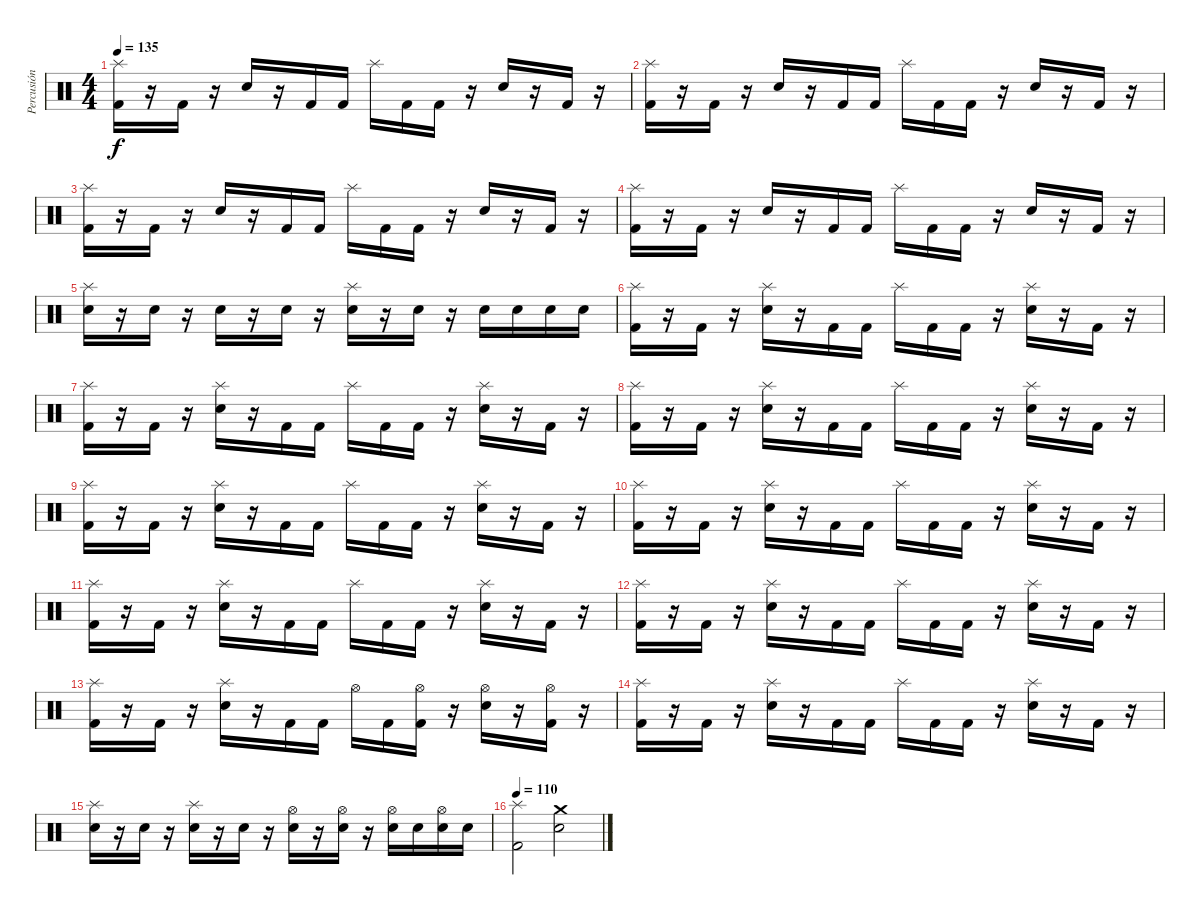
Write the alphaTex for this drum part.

\track ("Percusión" "Percusión") {instrument percussion}
\staff {score}
\articulation defaults
\ts (4 4)
\tempo 135
\clef neutral
\ks c
("Splash (hit)" "Kick (hit) 2").16{dy f} r.16 "Kick (hit) 2".16 r.16 "Electric Snare (hit)".16 r.16 "Kick (hit) 2".16 "Kick (hit) 2".16 "Splash (hit)".16 "Kick (hit) 2".16 "Kick (hit) 2".16 r.16 "Electric Snare (hit)".16 r.16 "Kick (hit) 2".16 r.16 |
("Splash (hit)" "Kick (hit) 2").16 r.16 "Kick (hit) 2".16 r.16 "Electric Snare (hit)".16 r.16 "Kick (hit) 2".16 "Kick (hit) 2".16 "Splash (hit)".16 "Kick (hit) 2".16 "Kick (hit) 2".16 r.16 "Electric Snare (hit)".16 r.16 "Kick (hit) 2".16 r.16 |
("Splash (hit)" "Kick (hit) 2").16 r.16 "Kick (hit) 2".16 r.16 "Electric Snare (hit)".16 r.16 "Kick (hit) 2".16 "Kick (hit) 2".16 "Splash (hit)".16 "Kick (hit) 2".16 "Kick (hit) 2".16 r.16 "Electric Snare (hit)".16 r.16 "Kick (hit) 2".16 r.16 |
("Splash (hit)" "Kick (hit) 2").16 r.16 "Kick (hit) 2".16 r.16 "Electric Snare (hit)".16 r.16 "Kick (hit) 2".16 "Kick (hit) 2".16 "Splash (hit)".16 "Kick (hit) 2".16 "Kick (hit) 2".16 r.16 "Electric Snare (hit)".16 r.16 "Kick (hit) 2".16 r.16 |
("Splash (hit)" "Electric Snare (hit)").16 r.16 "Electric Snare (hit)".16 r.16 "Electric Snare (hit)".16 r.16 "Electric Snare (hit)".16 r.16 ("Splash (hit)" "Electric Snare (hit)").16 r.16 "Electric Snare (hit)".16 r.16 "Electric Snare (hit)".16 "Electric Snare (hit)".16 "Electric Snare (hit)".16 "Electric Snare (hit)".16 |
("Splash (hit)" "Kick (hit) 2").16 r.16 "Kick (hit) 2".16 r.16 ("Splash (hit)" "Electric Snare (hit)").16 r.16 "Kick (hit) 2".16 "Kick (hit) 2".16 "Splash (hit)".16 "Kick (hit) 2".16 "Kick (hit) 2".16 r.16 ("Splash (hit)" "Electric Snare (hit)").16 r.16 "Kick (hit) 2".16 r.16 |
("Splash (hit)" "Kick (hit) 2").16 r.16 "Kick (hit) 2".16 r.16 ("Splash (hit)" "Electric Snare (hit)").16 r.16 "Kick (hit) 2".16 "Kick (hit) 2".16 "Splash (hit)".16 "Kick (hit) 2".16 "Kick (hit) 2".16 r.16 ("Splash (hit)" "Electric Snare (hit)").16 r.16 "Kick (hit) 2".16 r.16 |
("Splash (hit)" "Kick (hit) 2").16 r.16 "Kick (hit) 2".16 r.16 ("Splash (hit)" "Electric Snare (hit)").16 r.16 "Kick (hit) 2".16 "Kick (hit) 2".16 "Splash (hit)".16 "Kick (hit) 2".16 "Kick (hit) 2".16 r.16 ("Splash (hit)" "Electric Snare (hit)").16 r.16 "Kick (hit) 2".16 r.16 |
("Splash (hit)" "Kick (hit) 2").16 r.16 "Kick (hit) 2".16 r.16 ("Splash (hit)" "Electric Snare (hit)").16 r.16 "Kick (hit) 2".16 "Kick (hit) 2".16 "Splash (hit)".16 "Kick (hit) 2".16 "Kick (hit) 2".16 r.16 ("Splash (hit)" "Electric Snare (hit)").16 r.16 "Kick (hit) 2".16 r.16 |
("Splash (hit)" "Kick (hit) 2").16 r.16 "Kick (hit) 2".16 r.16 ("Splash (hit)" "Electric Snare (hit)").16 r.16 "Kick (hit) 2".16 "Kick (hit) 2".16 "Splash (hit)".16 "Kick (hit) 2".16 "Kick (hit) 2".16 r.16 ("Splash (hit)" "Electric Snare (hit)").16 r.16 "Kick (hit) 2".16 r.16 |
("Splash (hit)" "Kick (hit) 2").16 r.16 "Kick (hit) 2".16 r.16 ("Splash (hit)" "Electric Snare (hit)").16 r.16 "Kick (hit) 2".16 "Kick (hit) 2".16 "Splash (hit)".16 "Kick (hit) 2".16 "Kick (hit) 2".16 r.16 ("Splash (hit)" "Electric Snare (hit)").16 r.16 "Kick (hit) 2".16 r.16 |
("Splash (hit)" "Kick (hit) 2").16 r.16 "Kick (hit) 2".16 r.16 ("Splash (hit)" "Electric Snare (hit)").16 r.16 "Kick (hit) 2".16 "Kick (hit) 2".16 "Splash (hit)".16 "Kick (hit) 2".16 "Kick (hit) 2".16 r.16 ("Splash (hit)" "Electric Snare (hit)").16 r.16 "Kick (hit) 2".16 r.16 |
("Splash (hit)" "Kick (hit) 2").16 r.16 "Kick (hit) 2".16 r.16 ("Splash (hit)" "Electric Snare (hit)").16 r.16 "Kick (hit) 2".16 "Kick (hit) 2".16 "Hi-Hat (open)".16 "Kick (hit) 2".16 ("Hi-Hat (open)" "Kick (hit) 2").16 r.16 ("Hi-Hat (open)" "Electric Snare (hit)").16 r.16 ("Hi-Hat (open)" "Kick (hit) 2").16 r.16 |
("Splash (hit)" "Kick (hit) 2").16 r.16 "Kick (hit) 2".16 r.16 ("Splash (hit)" "Electric Snare (hit)").16 r.16 "Kick (hit) 2".16 "Kick (hit) 2".16 "Splash (hit)".16 "Kick (hit) 2".16 "Kick (hit) 2".16 r.16 ("Splash (hit)" "Electric Snare (hit)").16 r.16 "Kick (hit) 2".16 r.16 |
("Splash (hit)" "Electric Snare (hit)").16 r.16 "Electric Snare (hit)".16 r.16 ("Splash (hit)" "Electric Snare (hit)").16 r.16 "Electric Snare (hit)".16 r.16 ("Hi-Hat (open)" "Electric Snare (hit)").16 r.16 ("Hi-Hat (open)" "Electric Snare (hit)").16 r.16 ("Hi-Hat (open)" "Electric Snare (hit)").16 "Electric Snare (hit)".16 ("Hi-Hat (open)" "Electric Snare (hit)").16 "Electric Snare (hit)".16 |
\tempo 120
\tempo 110
("Splash (hit)" "Kick (hit) 2").2 ("Crash medium (hit)" "Snare (hit) 2").2
